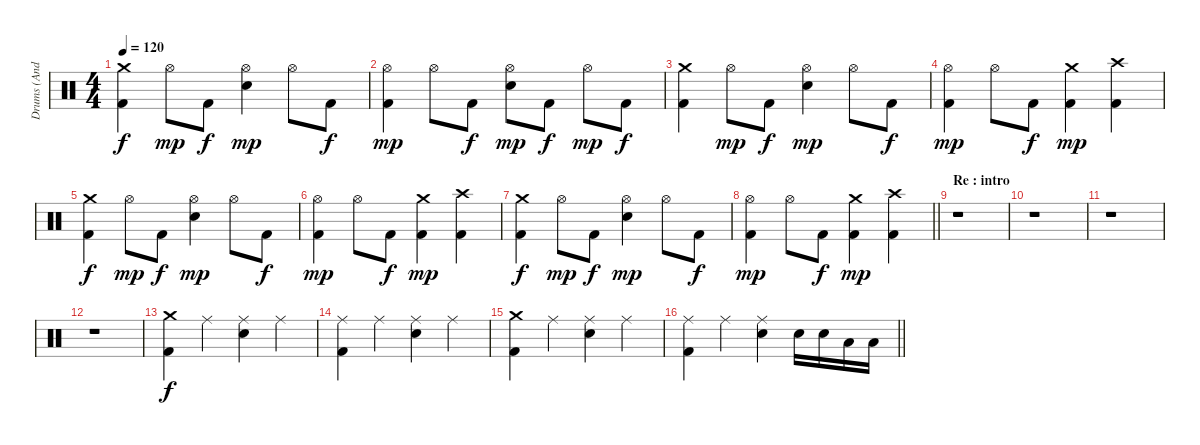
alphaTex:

\track ("Drums (Andy C)" "Drums (And") {instrument percussion}
\staff
\articulation defaults
\ts (4 4)
\tempo 120
\clef neutral
\ks c
("Crash medium (hit)" "Kick (hit) 2").4{dy f} "Hi-Hat (open)".8{dy mp} "Kick (hit) 2".8{dy f} ("Hi-Hat (open)" "Electric Snare (hit)").4{dy mp} "Hi-Hat (open)".8 "Kick (hit) 2".8{dy f} |
("Hi-Hat (open)" "Kick (hit) 2").4{dy mp} "Hi-Hat (open)".8 "Kick (hit) 2".8{dy f} ("Hi-Hat (open)" "Electric Snare (hit)").8{dy mp} "Kick (hit) 2".8{dy f} "Hi-Hat (open)".8{dy mp} "Kick (hit) 2".8{dy f} |
("Crash medium (hit)" "Kick (hit) 2").4 "Hi-Hat (open)".8{dy mp} "Kick (hit) 2".8{dy f} ("Hi-Hat (open)" "Electric Snare (hit)").4{dy mp} "Hi-Hat (open)".8 "Kick (hit) 2".8{dy f} |
("Hi-Hat (open)" "Kick (hit) 2").4{dy mp} "Hi-Hat (open)".8 "Kick (hit) 2".8{dy f} ("Crash medium (hit)" "Kick (hit) 2").4{dy mp} ("Crash high (hit)" "Kick (hit) 2").4 |
("Crash medium (hit)" "Kick (hit) 2").4{dy f} "Hi-Hat (open)".8{dy mp} "Kick (hit) 2".8{dy f} ("Hi-Hat (open)" "Electric Snare (hit)").4{dy mp} "Hi-Hat (open)".8 "Kick (hit) 2".8{dy f} |
("Hi-Hat (open)" "Kick (hit) 2").4{dy mp} "Hi-Hat (open)".8 "Kick (hit) 2".8{dy f} ("Crash medium (hit)" "Kick (hit) 2").4{dy mp} ("Crash high (hit)" "Kick (hit) 2").4 |
("Crash medium (hit)" "Kick (hit) 2").4{dy f} "Hi-Hat (open)".8{dy mp} "Kick (hit) 2".8{dy f} ("Hi-Hat (open)" "Electric Snare (hit)").4{dy mp} "Hi-Hat (open)".8 "Kick (hit) 2".8{dy f} |
\barLineRight lightlight
("Hi-Hat (open)" "Kick (hit) 2").4{dy mp} "Hi-Hat (open)".8 "Kick (hit) 2".8{dy f} ("Crash medium (hit)" "Kick (hit) 2").4{dy mp} ("Crash high (hit)" "Kick (hit) 2").4 |
\section ("" "Re : intro")
r.1 |
r.1 |
r.1 |
r.1 |
("Crash medium (hit)" "Kick (hit) 2").4{dy f} "Ride (middle)".4 ("Ride (middle)" "Electric Snare (hit)").4 "Ride (middle)".4 |
("Ride (middle)" "Kick (hit) 2").4 "Ride (middle)".4 ("Ride (middle)" "Electric Snare (hit)").4 "Ride (middle)".4 |
("Crash medium (hit)" "Kick (hit) 2").4 "Ride (middle)".4 ("Ride (middle)" "Electric Snare (hit)").4 "Ride (middle)".4 |
\barLineRight lightlight
("Ride (middle)" "Kick (hit) 2").4 "Ride (middle)".4 ("Ride (middle)" "Electric Snare (hit)").4 "Electric Snare (hit)".16 "Electric Snare (hit)".16 "Low Tom (hit)".16 "Low Tom (hit)".16
